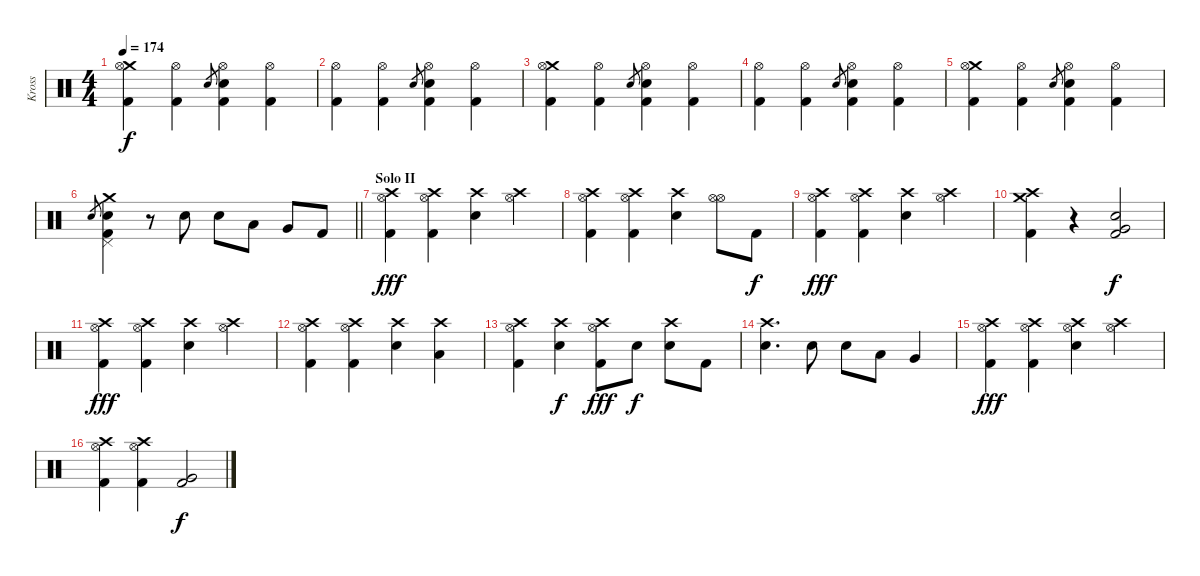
\track ("Kross" "Kross") {instrument percussion}
\staff {score}
\articulation defaults
\ts (4 4)
\tempo 174
\clef neutral
\ks c
("Crash medium (hit)" "Hi-Hat (open)" "Kick (hit) 2").4{dy f} ("Hi-Hat (open)" "Kick (hit) 2").4 "Electric Snare (hit)".8{gr} ("Hi-Hat (open)" "Electric Snare (hit)" "Kick (hit) 2").4 ("Hi-Hat (open)" "Kick (hit) 2").4 |
("Hi-Hat (open)" "Kick (hit) 2").4 ("Hi-Hat (open)" "Kick (hit) 2").4 "Electric Snare (hit)".8{gr} ("Hi-Hat (open)" "Electric Snare (hit)" "Kick (hit) 2").4 ("Hi-Hat (open)" "Kick (hit) 2").4 |
("Crash medium (hit)" "Hi-Hat (open)" "Kick (hit) 2").4 ("Hi-Hat (open)" "Kick (hit) 2").4 "Electric Snare (hit)".8{gr} ("Hi-Hat (open)" "Electric Snare (hit)" "Kick (hit) 2").4 ("Hi-Hat (open)" "Kick (hit) 2").4 |
("Hi-Hat (open)" "Kick (hit) 2").4 ("Hi-Hat (open)" "Kick (hit) 2").4 "Electric Snare (hit)".8{gr} ("Hi-Hat (open)" "Electric Snare (hit)" "Kick (hit) 2").4 ("Hi-Hat (open)" "Kick (hit) 2").4 |
("Crash medium (hit)" "Hi-Hat (open)" "Kick (hit) 2").4 ("Hi-Hat (open)" "Kick (hit) 2").4 "Electric Snare (hit)".8{gr} ("Hi-Hat (open)" "Electric Snare (hit)" "Kick (hit) 2").4 ("Hi-Hat (open)" "Kick (hit) 2").4 |
\barLineRight lightlight "Electric Snare (hit)".8{gr}
("Crash medium (hit)" "Pedal Hi-Hat (hit)" "Electric Snare (hit)" "Kick (hit) 2").4 r.8 "Electric Snare (hit)".8 "Electric Snare (hit)".8 "Low Tom (hit)".8 "Very Low Tom (hit)".8 "Kick (hit) 2".8 |
\section ("" "Solo II")
("Crash high (hit)" "Hi-Hat (open)" "Kick (hit) 2").4{dy fff} ("Crash high (hit)" "Hi-Hat (open)" "Kick (hit) 2").4 ("Crash high (hit)" "Electric Snare (hit)").4 ("Crash high (hit)" "Hi-Hat (open)").4 |
("Crash high (hit)" "Hi-Hat (open)" "Kick (hit) 2").4 ("Crash high (hit)" "Hi-Hat (open)" "Kick (hit) 2").4 ("Crash high (hit)" "Electric Snare (hit)").4 ("Hi-Hat (open)" "Hi-Hat (open)").8 "Kick (hit) 2".8{dy f} |
("Crash high (hit)" "Hi-Hat (open)" "Kick (hit) 2").4{dy fff} ("Crash high (hit)" "Hi-Hat (open)" "Kick (hit) 2").4 ("Crash high (hit)" "Electric Snare (hit)").4 ("Crash high (hit)" "Hi-Hat (open)").4 |
("Crash high (hit)" "Crash medium (hit)" "Kick (hit) 2").4 r.4 ("Very Low Tom (hit)" "Electric Snare (hit)" "Kick (hit) 2").2{dy f} |
("Crash high (hit)" "Hi-Hat (open)" "Kick (hit) 2").4{dy fff} ("Crash high (hit)" "Hi-Hat (open)" "Kick (hit) 2").4 ("Crash high (hit)" "Electric Snare (hit)").4 ("Crash high (hit)" "Hi-Hat (open)").4 |
("Crash high (hit)" "Hi-Hat (open)" "Kick (hit) 2").4 ("Crash high (hit)" "Hi-Hat (open)" "Kick (hit) 2").4 ("Crash high (hit)" "Electric Snare (hit)").4 ("Crash high (hit)" "Low Tom (hit)").4 |
("Crash high (hit)" "Hi-Hat (open)" "Kick (hit) 2").4 ("Crash high (hit)" "Electric Snare (hit)").4{dy f} ("Crash high (hit)" "Hi-Hat (open)" "Kick (hit) 2").8{dy fff} "Electric Snare (hit)".8{dy f} ("Crash high (hit)" "Electric Snare (hit)").8 "Kick (hit) 2".8 |
("Crash high (hit)" "Electric Snare (hit)").4{d} "Electric Snare (hit)".8 "Electric Snare (hit)".8 "Low Tom (hit)".8 "Very Low Tom (hit)".4 |
("Crash high (hit)" "Hi-Hat (open)" "Kick (hit) 2").4{dy fff} ("Crash high (hit)" "Hi-Hat (open)" "Kick (hit) 2").4 ("Crash high (hit)" "Hi-Hat (open)" "Electric Snare (hit)").4 ("Crash high (hit)" "Hi-Hat (open)").4 |
("Crash high (hit)" "Hi-Hat (open)" "Kick (hit) 2").4 ("Crash high (hit)" "Hi-Hat (open)" "Kick (hit) 2").4 ("Very Low Tom (hit)" "Kick (hit) 2").2{dy f}
